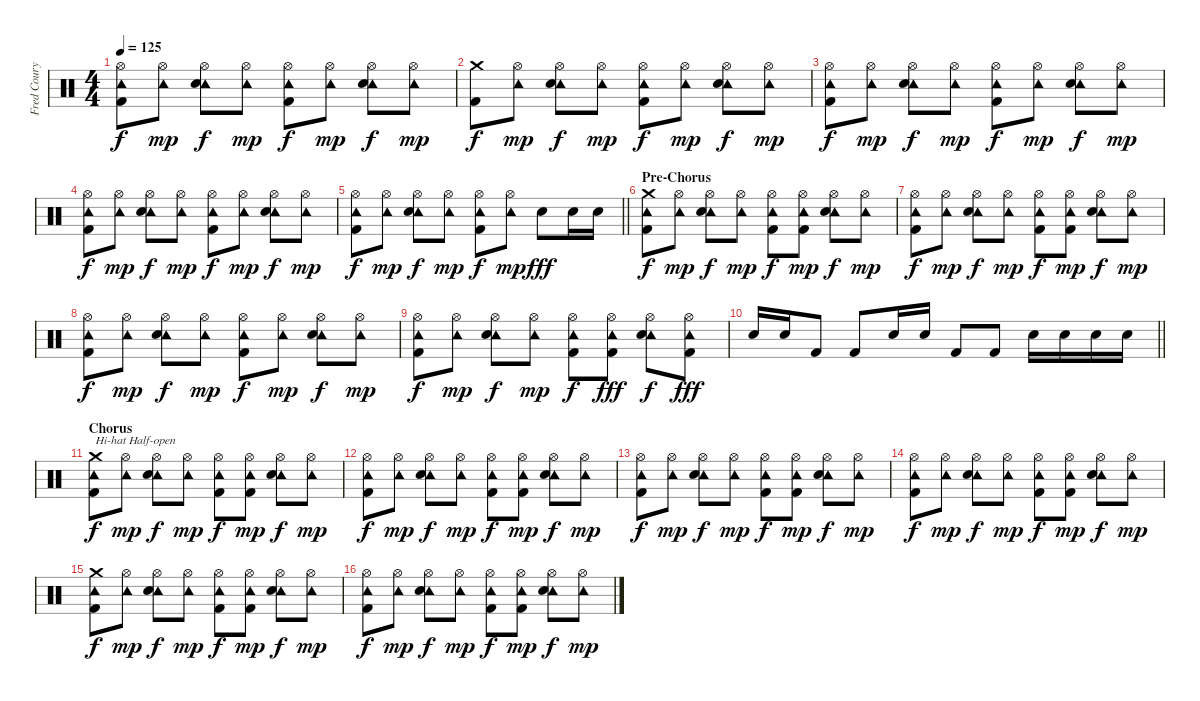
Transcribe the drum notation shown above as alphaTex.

\track ("Fred Coury - Drums" "Fred Coury") {instrument percussion}
\staff {score}
\articulation defaults
\ts (4 4)
\tempo 125
\clef neutral
\ks c
("Hi-Hat (open)" "Tambourine (hit)" "Kick (hit) 2").8{dy f} ("Hi-Hat (open)" "Tambourine (hit)").8{dy mp} ("Hi-Hat (open)" "Tambourine (hit)" "Snare (hit) 2").8{dy f} ("Hi-Hat (open)" "Tambourine (hit)").8{dy mp} ("Hi-Hat (open)" "Tambourine (hit)" "Kick (hit) 2").8{dy f} ("Hi-Hat (open)" "Tambourine (hit)").8{dy mp} ("Hi-Hat (open)" "Tambourine (hit)" "Snare (hit) 2").8{dy f} ("Hi-Hat (open)" "Tambourine (hit)").8{dy mp} |
("Crash medium (hit)" "Kick (hit) 2").8{dy f} ("Hi-Hat (open)" "Tambourine (hit)").8{dy mp} ("Hi-Hat (open)" "Tambourine (hit)" "Snare (hit) 2").8{dy f} ("Hi-Hat (open)" "Tambourine (hit)").8{dy mp} ("Hi-Hat (open)" "Tambourine (hit)" "Kick (hit) 2").8{dy f} ("Hi-Hat (open)" "Tambourine (hit)").8{dy mp} ("Hi-Hat (open)" "Tambourine (hit)" "Snare (hit) 2").8{dy f} ("Hi-Hat (open)" "Tambourine (hit)").8{dy mp} |
("Hi-Hat (open)" "Tambourine (hit)" "Kick (hit) 2").8{dy f} ("Hi-Hat (open)" "Tambourine (hit)").8{dy mp} ("Hi-Hat (open)" "Tambourine (hit)" "Snare (hit) 2").8{dy f} ("Hi-Hat (open)" "Tambourine (hit)").8{dy mp} ("Hi-Hat (open)" "Tambourine (hit)" "Kick (hit) 2").8{dy f} ("Hi-Hat (open)" "Tambourine (hit)").8{dy mp} ("Hi-Hat (open)" "Tambourine (hit)" "Snare (hit) 2").8{dy f} ("Hi-Hat (open)" "Tambourine (hit)").8{dy mp} |
("Hi-Hat (open)" "Tambourine (hit)" "Kick (hit) 2").8{dy f} ("Hi-Hat (open)" "Tambourine (hit)").8{dy mp} ("Hi-Hat (open)" "Tambourine (hit)" "Snare (hit) 2").8{dy f} ("Hi-Hat (open)" "Tambourine (hit)").8{dy mp} ("Hi-Hat (open)" "Tambourine (hit)" "Kick (hit) 2").8{dy f} ("Hi-Hat (open)" "Tambourine (hit)").8{dy mp} ("Hi-Hat (open)" "Tambourine (hit)" "Snare (hit) 2").8{dy f} ("Hi-Hat (open)" "Tambourine (hit)").8{dy mp} |
\barLineRight lightlight
("Hi-Hat (open)" "Tambourine (hit)" "Kick (hit) 2").8{dy f} ("Hi-Hat (open)" "Tambourine (hit)").8{dy mp} ("Hi-Hat (open)" "Tambourine (hit)" "Snare (hit) 2").8{dy f} ("Hi-Hat (open)" "Tambourine (hit)").8{dy mp} ("Hi-Hat (open)" "Tambourine (hit)" "Kick (hit) 2").8{dy f} ("Hi-Hat (open)" "Tambourine (hit)").8{dy mp} "Snare (hit) 2".8{dy fff} "Snare (hit) 2".16 "Snare (hit) 2".16 |
\section ("" "Pre-Chorus")
("Crash medium (hit)" "Tambourine (hit)" "Kick (hit) 2").8{dy f} ("Hi-Hat (open)" "Tambourine (hit)").8{dy mp} ("Hi-Hat (open)" "Tambourine (hit)" "Snare (hit) 2").8{dy f} ("Hi-Hat (open)" "Tambourine (hit)").8{dy mp} ("Hi-Hat (open)" "Tambourine (hit)" "Kick (hit) 2").8{dy f} ("Hi-Hat (open)" "Tambourine (hit)" "Kick (hit) 2").8{dy mp} ("Hi-Hat (open)" "Tambourine (hit)" "Snare (hit) 2").8{dy f} ("Hi-Hat (open)" "Tambourine (hit)").8{dy mp} |
("Hi-Hat (open)" "Tambourine (hit)" "Kick (hit) 2").8{dy f} ("Hi-Hat (open)" "Tambourine (hit)").8{dy mp} ("Hi-Hat (open)" "Tambourine (hit)" "Snare (hit) 2").8{dy f} ("Hi-Hat (open)" "Tambourine (hit)").8{dy mp} ("Hi-Hat (open)" "Tambourine (hit)" "Kick (hit) 2").8{dy f} ("Hi-Hat (open)" "Tambourine (hit)" "Kick (hit) 2").8{dy mp} ("Hi-Hat (open)" "Tambourine (hit)" "Snare (hit) 2").8{dy f} ("Hi-Hat (open)" "Tambourine (hit)").8{dy mp} |
("Hi-Hat (open)" "Tambourine (hit)" "Kick (hit) 2").8{dy f} ("Hi-Hat (open)" "Tambourine (hit)").8{dy mp} ("Hi-Hat (open)" "Tambourine (hit)" "Snare (hit) 2").8{dy f} ("Hi-Hat (open)" "Tambourine (hit)").8{dy mp} ("Hi-Hat (open)" "Tambourine (hit)" "Kick (hit) 2").8{dy f} ("Hi-Hat (open)" "Tambourine (hit)").8{dy mp} ("Hi-Hat (open)" "Tambourine (hit)" "Snare (hit) 2").8{dy f} ("Hi-Hat (open)" "Tambourine (hit)").8{dy mp} |
("Hi-Hat (open)" "Tambourine (hit)" "Kick (hit) 2").8{dy f} ("Hi-Hat (open)" "Tambourine (hit)").8{dy mp} ("Hi-Hat (open)" "Tambourine (hit)" "Snare (hit) 2").8{dy f} ("Hi-Hat (open)" "Tambourine (hit)").8{dy mp} ("Hi-Hat (open)" "Tambourine (hit)" "Kick (hit) 2").8{dy f} ("Hi-Hat (open)" "Tambourine (hit)" "Kick (hit) 2").8{dy fff} ("Hi-Hat (open)" "Tambourine (hit)" "Snare (hit) 2").8{dy f} ("Hi-Hat (open)" "Tambourine (hit)" "Kick (hit) 2").8{dy fff} |
\barLineRight lightlight "Snare (hit) 2".16 "Snare (hit) 2".16 "Kick (hit) 2".8 "Kick (hit) 2".8 "Snare (hit) 2".16 "Snare (hit) 2".16 "Kick (hit) 2".8 "Kick (hit) 2".8 "Snare (hit) 2".16 "Snare (hit) 2".16 "Snare (hit) 2".16 "Snare (hit) 2".16
|
\section ("" "Chorus")
("Crash medium (hit)" "Tambourine (hit)" "Kick (hit) 2").8{txt "Hi-hat Half-open" dy f} ("Hi-Hat (open)" "Tambourine (hit)").8{dy mp} ("Hi-Hat (open)" "Tambourine (hit)" "Snare (hit) 2").8{dy f} ("Hi-Hat (open)" "Tambourine (hit)").8{dy mp} ("Hi-Hat (open)" "Tambourine (hit)" "Kick (hit) 2").8{dy f} ("Hi-Hat (open)" "Tambourine (hit)" "Kick (hit) 2").8{dy mp} ("Hi-Hat (open)" "Tambourine (hit)" "Snare (hit) 2").8{dy f} ("Hi-Hat (open)" "Tambourine (hit)").8{dy mp} |
("Hi-Hat (open)" "Tambourine (hit)" "Kick (hit) 2").8{dy f} ("Hi-Hat (open)" "Tambourine (hit)").8{dy mp} ("Hi-Hat (open)" "Tambourine (hit)" "Snare (hit) 2").8{dy f} ("Hi-Hat (open)" "Tambourine (hit)").8{dy mp} ("Hi-Hat (open)" "Tambourine (hit)" "Kick (hit) 2").8{dy f} ("Hi-Hat (open)" "Tambourine (hit)" "Kick (hit) 2").8{dy mp} ("Hi-Hat (open)" "Tambourine (hit)" "Snare (hit) 2").8{dy f} ("Hi-Hat (open)" "Tambourine (hit)").8{dy mp} |
("Hi-Hat (open)" "Tambourine (hit)" "Kick (hit) 2").8{dy f} ("Hi-Hat (open)" "Tambourine (hit)").8{dy mp} ("Hi-Hat (open)" "Tambourine (hit)" "Snare (hit) 2").8{dy f} ("Hi-Hat (open)" "Tambourine (hit)").8{dy mp} ("Hi-Hat (open)" "Tambourine (hit)" "Kick (hit) 2").8{dy f} ("Hi-Hat (open)" "Tambourine (hit)" "Kick (hit) 2").8{dy mp} ("Hi-Hat (open)" "Tambourine (hit)" "Snare (hit) 2").8{dy f} ("Hi-Hat (open)" "Tambourine (hit)").8{dy mp} |
("Hi-Hat (open)" "Tambourine (hit)" "Kick (hit) 2").8{dy f} ("Hi-Hat (open)" "Tambourine (hit)").8{dy mp} ("Hi-Hat (open)" "Tambourine (hit)" "Snare (hit) 2").8{dy f} ("Hi-Hat (open)" "Tambourine (hit)").8{dy mp} ("Hi-Hat (open)" "Tambourine (hit)" "Kick (hit) 2").8{dy f} ("Hi-Hat (open)" "Tambourine (hit)" "Kick (hit) 2").8{dy mp} ("Hi-Hat (open)" "Tambourine (hit)" "Snare (hit) 2").8{dy f} ("Hi-Hat (open)" "Tambourine (hit)").8{dy mp} |
("Crash medium (hit)" "Tambourine (hit)" "Kick (hit) 2").8{dy f} ("Hi-Hat (open)" "Tambourine (hit)").8{dy mp} ("Hi-Hat (open)" "Tambourine (hit)" "Snare (hit) 2").8{dy f} ("Hi-Hat (open)" "Tambourine (hit)").8{dy mp} ("Hi-Hat (open)" "Tambourine (hit)" "Kick (hit) 2").8{dy f} ("Hi-Hat (open)" "Tambourine (hit)" "Kick (hit) 2").8{dy mp} ("Hi-Hat (open)" "Tambourine (hit)" "Snare (hit) 2").8{dy f} ("Hi-Hat (open)" "Tambourine (hit)").8{dy mp} |
("Hi-Hat (open)" "Tambourine (hit)" "Kick (hit) 2").8{dy f} ("Hi-Hat (open)" "Tambourine (hit)").8{dy mp} ("Hi-Hat (open)" "Tambourine (hit)" "Snare (hit) 2").8{dy f} ("Hi-Hat (open)" "Tambourine (hit)").8{dy mp} ("Hi-Hat (open)" "Tambourine (hit)" "Kick (hit) 2").8{dy f} ("Hi-Hat (open)" "Tambourine (hit)" "Kick (hit) 2").8{dy mp} ("Hi-Hat (open)" "Tambourine (hit)" "Snare (hit) 2").8{dy f} ("Hi-Hat (open)" "Tambourine (hit)").8{dy mp}
